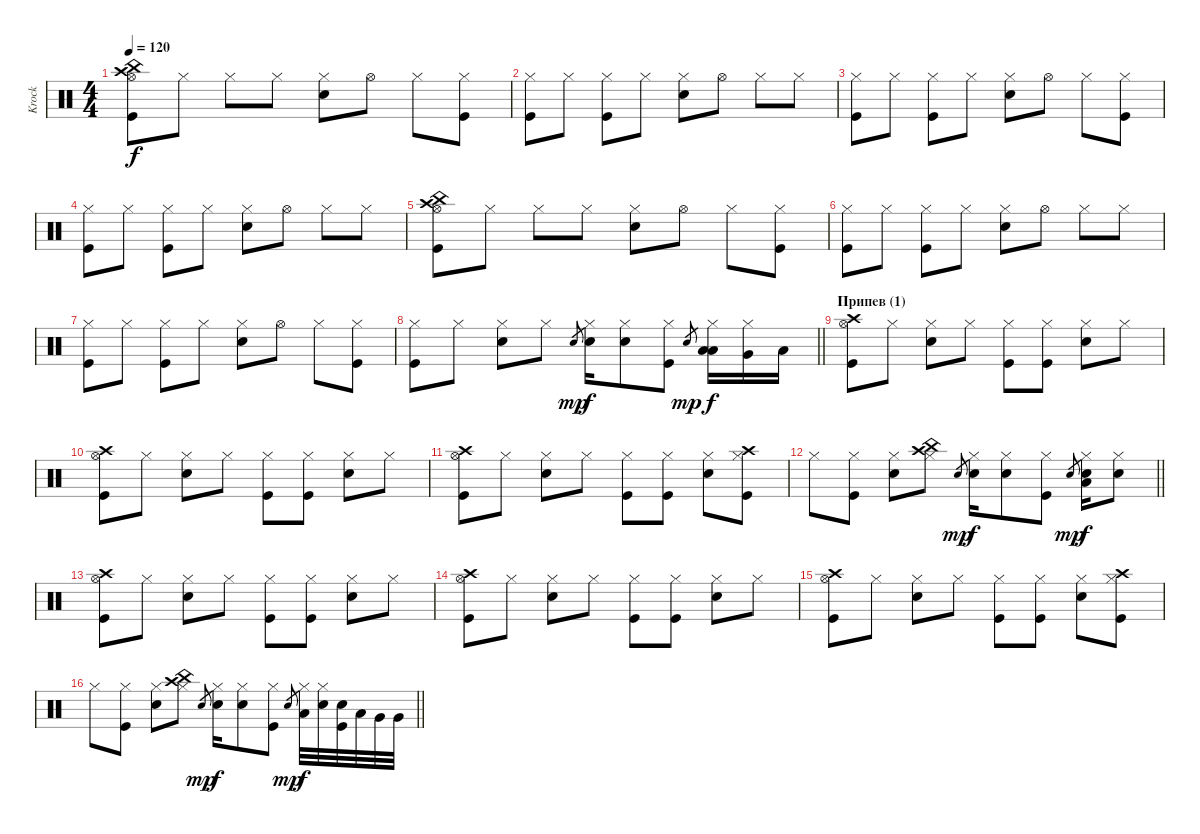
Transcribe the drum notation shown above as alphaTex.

\track ("Krock" "Krock") {instrument percussion}
\staff {score}
\articulation defaults
\ts (4 4)
\tempo 120
\clef neutral
\ks c
("China (hit)" "Hi-Hat (open)" "Crash high (hit)" "Kick (hit)").8{dy f} "Hi-Hat (closed)".8 "Hi-Hat (closed)".8 "Hi-Hat (closed)".8 ("Hi-Hat (closed)" "Snare (hit) 2").8 "Hi-Hat (open)".8 "Hi-Hat (closed)".8 ("Hi-Hat (closed)" "Kick (hit)").8 |
("Hi-Hat (closed)" "Kick (hit)").8 "Hi-Hat (closed)".8 ("Hi-Hat (closed)" "Kick (hit)").8 "Hi-Hat (closed)".8 ("Hi-Hat (closed)" "Snare (hit) 2").8 "Hi-Hat (open)".8 "Hi-Hat (closed)".8 "Hi-Hat (closed)".8 |
("Hi-Hat (closed)" "Kick (hit)").8 "Hi-Hat (closed)".8 ("Hi-Hat (closed)" "Kick (hit)").8 "Hi-Hat (closed)".8 ("Hi-Hat (closed)" "Snare (hit) 2").8 "Hi-Hat (open)".8 "Hi-Hat (closed)".8 ("Hi-Hat (closed)" "Kick (hit)").8 |
("Hi-Hat (closed)" "Kick (hit)").8 "Hi-Hat (closed)".8 ("Hi-Hat (closed)" "Kick (hit)").8 "Hi-Hat (closed)".8 ("Hi-Hat (closed)" "Snare (hit) 2").8 "Hi-Hat (open)".8 "Hi-Hat (closed)".8 "Hi-Hat (closed)".8 |
("China (hit)" "Hi-Hat (open)" "Crash high (hit)" "Kick (hit)").8 "Hi-Hat (closed)".8 "Hi-Hat (closed)".8 "Hi-Hat (closed)".8 ("Hi-Hat (closed)" "Snare (hit) 2").8 "Hi-Hat (open)".8 "Hi-Hat (closed)".8 ("Hi-Hat (closed)" "Kick (hit)").8 |
("Hi-Hat (closed)" "Kick (hit)").8 "Hi-Hat (closed)".8 ("Hi-Hat (closed)" "Kick (hit)").8 "Hi-Hat (closed)".8 ("Hi-Hat (closed)" "Snare (hit) 2").8 "Hi-Hat (open)".8 "Hi-Hat (closed)".8 "Hi-Hat (closed)".8 |
("Hi-Hat (closed)" "Kick (hit)").8 "Hi-Hat (closed)".8 ("Hi-Hat (closed)" "Kick (hit)").8 "Hi-Hat (closed)".8 ("Hi-Hat (closed)" "Snare (hit) 2").8 "Hi-Hat (open)".8 "Hi-Hat (closed)".8 ("Hi-Hat (closed)" "Kick (hit)").8 |
\barLineRight lightlight
("Hi-Hat (closed)" "Kick (hit)").8 "Hi-Hat (closed)".8 ("Hi-Hat (closed)" "Snare (hit) 2").8 "Hi-Hat (closed)".8 "Snare (hit) 2".8{gr dy mp} ("Hi-Hat (closed)" "Snare (hit) 2").16{dy f} ("Hi-Hat (closed)" "Snare (hit) 2").8 ("Hi-Hat (closed)" "Kick (hit)").8 "Snare (hit) 2".8{gr dy mp} ("Hi-Hat (closed)" "Low Floor Tom (hit)" "Low Floor Tom (hit)").16{dy f} ("Hi-Hat (closed)" "Very Low Tom (hit)").16 "Low Tom (hit)".16 |
\section ("" "Припев (1)")
("Hi-Hat (open)" "Crash high (hit)" "Kick (hit)").8 "Hi-Hat (closed)".8 ("Hi-Hat (closed)" "Snare (hit) 2").8 "Hi-Hat (closed)".8 ("Hi-Hat (closed)" "Kick (hit)").8 ("Hi-Hat (closed)" "Kick (hit)").8 ("Hi-Hat (closed)" "Snare (hit) 2").8 "Hi-Hat (closed)".8 |
("Hi-Hat (open)" "Crash high (hit)" "Kick (hit)").8 "Hi-Hat (closed)".8 ("Hi-Hat (closed)" "Snare (hit) 2").8 "Hi-Hat (closed)".8 ("Hi-Hat (closed)" "Kick (hit)").8 ("Hi-Hat (closed)" "Kick (hit)").8 ("Hi-Hat (closed)" "Snare (hit) 2").8 "Hi-Hat (closed)".8 |
("Hi-Hat (open)" "Crash high (hit)" "Kick (hit)").8 "Hi-Hat (closed)".8 ("Hi-Hat (closed)" "Snare (hit) 2").8 "Hi-Hat (closed)".8 ("Hi-Hat (closed)" "Kick (hit)").8 ("Hi-Hat (closed)" "Kick (hit)").8 ("Hi-Hat (closed)" "Snare (hit) 2").8 ("Crash high (hit)" "Hi-Hat (closed)" "Kick (hit)").8 |
\barLineRight lightlight "Hi-Hat (closed)".8
("Hi-Hat (closed)" "Kick (hit)").8 ("Hi-Hat (closed)" "Snare (hit) 2").8 ("China (hit)" "Crash high (hit)" "Hi-Hat (closed)").8 "Snare (hit) 2".8{gr dy mp} ("Hi-Hat (closed)" "Snare (hit) 2").16{dy f} ("Hi-Hat (closed)" "Snare (hit) 2").8 ("Hi-Hat (closed)" "Kick (hit)").8 "Snare (hit) 2".8{gr dy mp} ("Hi-Hat (closed)" "Snare (hit) 2" "Low Floor Tom (hit)").16{dy f} ("Hi-Hat (closed)" "Snare (hit) 2").8 |
("Hi-Hat (open)" "Crash high (hit)" "Kick (hit)").8 "Hi-Hat (closed)".8 ("Hi-Hat (closed)" "Snare (hit) 2").8 "Hi-Hat (closed)".8 ("Hi-Hat (closed)" "Kick (hit)").8 ("Hi-Hat (closed)" "Kick (hit)").8 ("Hi-Hat (closed)" "Snare (hit) 2").8 "Hi-Hat (closed)".8 |
("Hi-Hat (open)" "Crash high (hit)" "Kick (hit)").8 "Hi-Hat (closed)".8 ("Hi-Hat (closed)" "Snare (hit) 2").8 "Hi-Hat (closed)".8 ("Hi-Hat (closed)" "Kick (hit)").8 ("Hi-Hat (closed)" "Kick (hit)").8 ("Hi-Hat (closed)" "Snare (hit) 2").8 "Hi-Hat (closed)".8 |
("Hi-Hat (open)" "Crash high (hit)" "Kick (hit)").8 "Hi-Hat (closed)".8 ("Hi-Hat (closed)" "Snare (hit) 2").8 "Hi-Hat (closed)".8 ("Hi-Hat (closed)" "Kick (hit)").8 ("Hi-Hat (closed)" "Kick (hit)").8 ("Hi-Hat (closed)" "Snare (hit) 2").8 ("Crash high (hit)" "Hi-Hat (closed)" "Kick (hit)").8 |
\barLineRight lightlight "Hi-Hat (closed)".8
("Hi-Hat (closed)" "Kick (hit)").8 ("Hi-Hat (closed)" "Snare (hit) 2").8 ("China (hit)" "Crash high (hit)" "Hi-Hat (closed)").8 "Snare (hit) 2".8{gr dy mp} ("Hi-Hat (closed)" "Snare (hit) 2").16{dy f} ("Hi-Hat (closed)" "Snare (hit) 2").8 ("Hi-Hat (closed)" "Kick (hit)").8 "Snare (hit) 2".8{gr dy mp} ("Hi-Hat (closed)" "Low Floor Tom (hit)").32{dy f} ("Hi-Hat (closed)" "Snare (hit) 2").32 ("Snare (hit) 2" "Kick (hit)").32 "Low Tom (hit)".32 "Very Low Tom (hit)".32 "Very Low Tom (hit)".32
